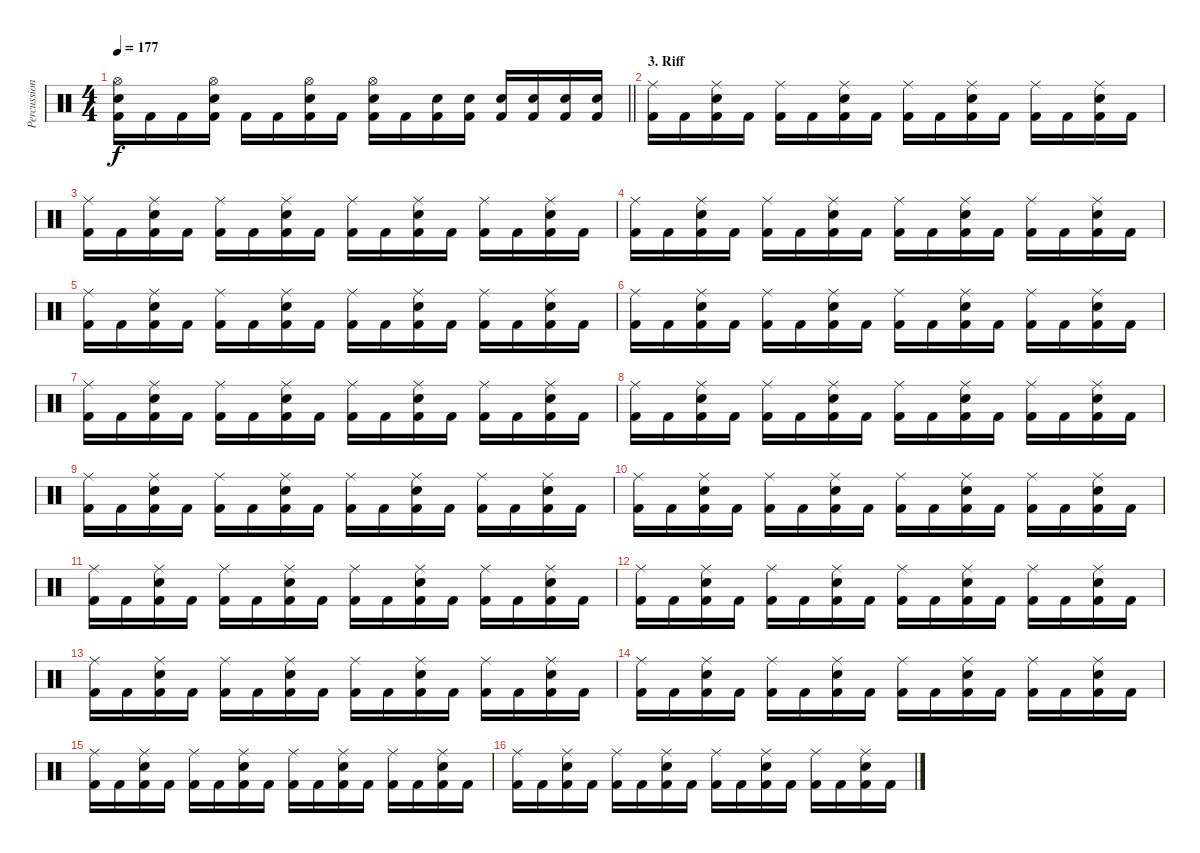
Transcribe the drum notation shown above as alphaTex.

\track ("Percussion" "Percussion") {instrument percussion}
\staff {score}
\articulation defaults
\ts (4 4)
\tempo 177
\clef neutral
\barLineRight lightlight
\ks c
("Hi-Hat (open)" "Snare (hit) 2" "Kick (hit) 2").16{dy f} "Kick (hit) 2".16 "Kick (hit) 2".16 ("Hi-Hat (open)" "Snare (hit) 2" "Kick (hit) 2").16 "Kick (hit) 2".16 "Kick (hit) 2".16 ("Hi-Hat (open)" "Snare (hit) 2" "Kick (hit) 2").16 "Kick (hit) 2".16 ("Hi-Hat (open)" "Snare (hit) 2" "Kick (hit) 2").16 "Kick (hit) 2".16 ("Snare (hit) 2" "Kick (hit) 2").16 ("Snare (hit) 2" "Kick (hit) 2").16 ("Snare (hit) 2" "Kick (hit) 2").16 ("Snare (hit) 2" "Kick (hit) 2").16 ("Snare (hit) 2" "Kick (hit) 2").16 ("Snare (hit) 2" "Kick (hit) 2").16 |
\section ("" "3. Riff")
("Ride (middle)" "Kick (hit) 2").16 "Kick (hit) 2".16 ("Ride (middle)" "Snare (hit) 2" "Kick (hit) 2").16 "Kick (hit) 2".16 ("Ride (middle)" "Kick (hit) 2").16 "Kick (hit) 2".16 ("Ride (middle)" "Snare (hit) 2" "Kick (hit) 2").16 "Kick (hit) 2".16 ("Ride (middle)" "Kick (hit) 2").16 "Kick (hit) 2".16 ("Ride (middle)" "Snare (hit) 2" "Kick (hit) 2").16 "Kick (hit) 2".16 ("Ride (middle)" "Kick (hit) 2").16 "Kick (hit) 2".16 ("Ride (middle)" "Snare (hit) 2" "Kick (hit) 2").16 "Kick (hit) 2".16 |
("Ride (middle)" "Kick (hit) 2").16 "Kick (hit) 2".16 ("Ride (middle)" "Snare (hit) 2" "Kick (hit) 2").16 "Kick (hit) 2".16 ("Ride (middle)" "Kick (hit) 2").16 "Kick (hit) 2".16 ("Ride (middle)" "Snare (hit) 2" "Kick (hit) 2").16 "Kick (hit) 2".16 ("Ride (middle)" "Kick (hit) 2").16 "Kick (hit) 2".16 ("Ride (middle)" "Snare (hit) 2" "Kick (hit) 2").16 "Kick (hit) 2".16 ("Ride (middle)" "Kick (hit) 2").16 "Kick (hit) 2".16 ("Ride (middle)" "Snare (hit) 2" "Kick (hit) 2").16 "Kick (hit) 2".16 |
("Ride (middle)" "Kick (hit) 2").16 "Kick (hit) 2".16 ("Ride (middle)" "Snare (hit) 2" "Kick (hit) 2").16 "Kick (hit) 2".16 ("Ride (middle)" "Kick (hit) 2").16 "Kick (hit) 2".16 ("Ride (middle)" "Snare (hit) 2" "Kick (hit) 2").16 "Kick (hit) 2".16 ("Ride (middle)" "Kick (hit) 2").16 "Kick (hit) 2".16 ("Ride (middle)" "Snare (hit) 2" "Kick (hit) 2").16 "Kick (hit) 2".16 ("Ride (middle)" "Kick (hit) 2").16 "Kick (hit) 2".16 ("Ride (middle)" "Snare (hit) 2" "Kick (hit) 2").16 "Kick (hit) 2".16 |
("Ride (middle)" "Kick (hit) 2").16 "Kick (hit) 2".16 ("Ride (middle)" "Snare (hit) 2" "Kick (hit) 2").16 "Kick (hit) 2".16 ("Ride (middle)" "Kick (hit) 2").16 "Kick (hit) 2".16 ("Ride (middle)" "Snare (hit) 2" "Kick (hit) 2").16 "Kick (hit) 2".16 ("Ride (middle)" "Kick (hit) 2").16 "Kick (hit) 2".16 ("Ride (middle)" "Snare (hit) 2" "Kick (hit) 2").16 "Kick (hit) 2".16 ("Ride (middle)" "Kick (hit) 2").16 "Kick (hit) 2".16 ("Ride (middle)" "Snare (hit) 2" "Kick (hit) 2").16 "Kick (hit) 2".16 |
("Ride (middle)" "Kick (hit) 2").16 "Kick (hit) 2".16 ("Ride (middle)" "Snare (hit) 2" "Kick (hit) 2").16 "Kick (hit) 2".16 ("Ride (middle)" "Kick (hit) 2").16 "Kick (hit) 2".16 ("Ride (middle)" "Snare (hit) 2" "Kick (hit) 2").16 "Kick (hit) 2".16 ("Ride (middle)" "Kick (hit) 2").16 "Kick (hit) 2".16 ("Ride (middle)" "Snare (hit) 2" "Kick (hit) 2").16 "Kick (hit) 2".16 ("Ride (middle)" "Kick (hit) 2").16 "Kick (hit) 2".16 ("Ride (middle)" "Snare (hit) 2" "Kick (hit) 2").16 "Kick (hit) 2".16 |
("Ride (middle)" "Kick (hit) 2").16 "Kick (hit) 2".16 ("Ride (middle)" "Snare (hit) 2" "Kick (hit) 2").16 "Kick (hit) 2".16 ("Ride (middle)" "Kick (hit) 2").16 "Kick (hit) 2".16 ("Ride (middle)" "Snare (hit) 2" "Kick (hit) 2").16 "Kick (hit) 2".16 ("Ride (middle)" "Kick (hit) 2").16 "Kick (hit) 2".16 ("Ride (middle)" "Snare (hit) 2" "Kick (hit) 2").16 "Kick (hit) 2".16 ("Ride (middle)" "Kick (hit) 2").16 "Kick (hit) 2".16 ("Ride (middle)" "Snare (hit) 2" "Kick (hit) 2").16 "Kick (hit) 2".16 |
("Ride (middle)" "Kick (hit) 2").16 "Kick (hit) 2".16 ("Ride (middle)" "Snare (hit) 2" "Kick (hit) 2").16 "Kick (hit) 2".16 ("Ride (middle)" "Kick (hit) 2").16 "Kick (hit) 2".16 ("Ride (middle)" "Snare (hit) 2" "Kick (hit) 2").16 "Kick (hit) 2".16 ("Ride (middle)" "Kick (hit) 2").16 "Kick (hit) 2".16 ("Ride (middle)" "Snare (hit) 2" "Kick (hit) 2").16 "Kick (hit) 2".16 ("Ride (middle)" "Kick (hit) 2").16 "Kick (hit) 2".16 ("Ride (middle)" "Snare (hit) 2" "Kick (hit) 2").16 "Kick (hit) 2".16 |
("Ride (middle)" "Kick (hit) 2").16 "Kick (hit) 2".16 ("Ride (middle)" "Snare (hit) 2" "Kick (hit) 2").16 "Kick (hit) 2".16 ("Ride (middle)" "Kick (hit) 2").16 "Kick (hit) 2".16 ("Ride (middle)" "Snare (hit) 2" "Kick (hit) 2").16 "Kick (hit) 2".16 ("Ride (middle)" "Kick (hit) 2").16 "Kick (hit) 2".16 ("Ride (middle)" "Snare (hit) 2" "Kick (hit) 2").16 "Kick (hit) 2".16 ("Ride (middle)" "Kick (hit) 2").16 "Kick (hit) 2".16 ("Ride (middle)" "Snare (hit) 2" "Kick (hit) 2").16 "Kick (hit) 2".16 |
("Ride (middle)" "Kick (hit) 2").16 "Kick (hit) 2".16 ("Ride (middle)" "Snare (hit) 2" "Kick (hit) 2").16 "Kick (hit) 2".16 ("Ride (middle)" "Kick (hit) 2").16 "Kick (hit) 2".16 ("Ride (middle)" "Snare (hit) 2" "Kick (hit) 2").16 "Kick (hit) 2".16 ("Ride (middle)" "Kick (hit) 2").16 "Kick (hit) 2".16 ("Ride (middle)" "Snare (hit) 2" "Kick (hit) 2").16 "Kick (hit) 2".16 ("Ride (middle)" "Kick (hit) 2").16 "Kick (hit) 2".16 ("Ride (middle)" "Snare (hit) 2" "Kick (hit) 2").16 "Kick (hit) 2".16 |
("Ride (middle)" "Kick (hit) 2").16 "Kick (hit) 2".16 ("Ride (middle)" "Snare (hit) 2" "Kick (hit) 2").16 "Kick (hit) 2".16 ("Ride (middle)" "Kick (hit) 2").16 "Kick (hit) 2".16 ("Ride (middle)" "Snare (hit) 2" "Kick (hit) 2").16 "Kick (hit) 2".16 ("Ride (middle)" "Kick (hit) 2").16 "Kick (hit) 2".16 ("Ride (middle)" "Snare (hit) 2" "Kick (hit) 2").16 "Kick (hit) 2".16 ("Ride (middle)" "Kick (hit) 2").16 "Kick (hit) 2".16 ("Ride (middle)" "Snare (hit) 2" "Kick (hit) 2").16 "Kick (hit) 2".16 |
("Ride (middle)" "Kick (hit) 2").16 "Kick (hit) 2".16 ("Ride (middle)" "Snare (hit) 2" "Kick (hit) 2").16 "Kick (hit) 2".16 ("Ride (middle)" "Kick (hit) 2").16 "Kick (hit) 2".16 ("Ride (middle)" "Snare (hit) 2" "Kick (hit) 2").16 "Kick (hit) 2".16 ("Ride (middle)" "Kick (hit) 2").16 "Kick (hit) 2".16 ("Ride (middle)" "Snare (hit) 2" "Kick (hit) 2").16 "Kick (hit) 2".16 ("Ride (middle)" "Kick (hit) 2").16 "Kick (hit) 2".16 ("Ride (middle)" "Snare (hit) 2" "Kick (hit) 2").16 "Kick (hit) 2".16 |
("Ride (middle)" "Kick (hit) 2").16 "Kick (hit) 2".16 ("Ride (middle)" "Snare (hit) 2" "Kick (hit) 2").16 "Kick (hit) 2".16 ("Ride (middle)" "Kick (hit) 2").16 "Kick (hit) 2".16 ("Ride (middle)" "Snare (hit) 2" "Kick (hit) 2").16 "Kick (hit) 2".16 ("Ride (middle)" "Kick (hit) 2").16 "Kick (hit) 2".16 ("Ride (middle)" "Snare (hit) 2" "Kick (hit) 2").16 "Kick (hit) 2".16 ("Ride (middle)" "Kick (hit) 2").16 "Kick (hit) 2".16 ("Ride (middle)" "Snare (hit) 2" "Kick (hit) 2").16 "Kick (hit) 2".16 |
("Ride (middle)" "Kick (hit) 2").16 "Kick (hit) 2".16 ("Ride (middle)" "Snare (hit) 2" "Kick (hit) 2").16 "Kick (hit) 2".16 ("Ride (middle)" "Kick (hit) 2").16 "Kick (hit) 2".16 ("Ride (middle)" "Snare (hit) 2" "Kick (hit) 2").16 "Kick (hit) 2".16 ("Ride (middle)" "Kick (hit) 2").16 "Kick (hit) 2".16 ("Ride (middle)" "Snare (hit) 2" "Kick (hit) 2").16 "Kick (hit) 2".16 ("Ride (middle)" "Kick (hit) 2").16 "Kick (hit) 2".16 ("Ride (middle)" "Snare (hit) 2" "Kick (hit) 2").16 "Kick (hit) 2".16 |
("Ride (middle)" "Kick (hit) 2").16 "Kick (hit) 2".16 ("Ride (middle)" "Snare (hit) 2" "Kick (hit) 2").16 "Kick (hit) 2".16 ("Ride (middle)" "Kick (hit) 2").16 "Kick (hit) 2".16 ("Ride (middle)" "Snare (hit) 2" "Kick (hit) 2").16 "Kick (hit) 2".16 ("Ride (middle)" "Kick (hit) 2").16 "Kick (hit) 2".16 ("Ride (middle)" "Snare (hit) 2" "Kick (hit) 2").16 "Kick (hit) 2".16 ("Ride (middle)" "Kick (hit) 2").16 "Kick (hit) 2".16 ("Ride (middle)" "Snare (hit) 2" "Kick (hit) 2").16 "Kick (hit) 2".16 |
("Ride (middle)" "Kick (hit) 2").16 "Kick (hit) 2".16 ("Ride (middle)" "Snare (hit) 2" "Kick (hit) 2").16 "Kick (hit) 2".16 ("Ride (middle)" "Kick (hit) 2").16 "Kick (hit) 2".16 ("Ride (middle)" "Snare (hit) 2" "Kick (hit) 2").16 "Kick (hit) 2".16 ("Ride (middle)" "Kick (hit) 2").16 "Kick (hit) 2".16 ("Ride (middle)" "Snare (hit) 2" "Kick (hit) 2").16 "Kick (hit) 2".16 ("Ride (middle)" "Kick (hit) 2").16 "Kick (hit) 2".16 ("Ride (middle)" "Snare (hit) 2" "Kick (hit) 2").16 "Kick (hit) 2".16
